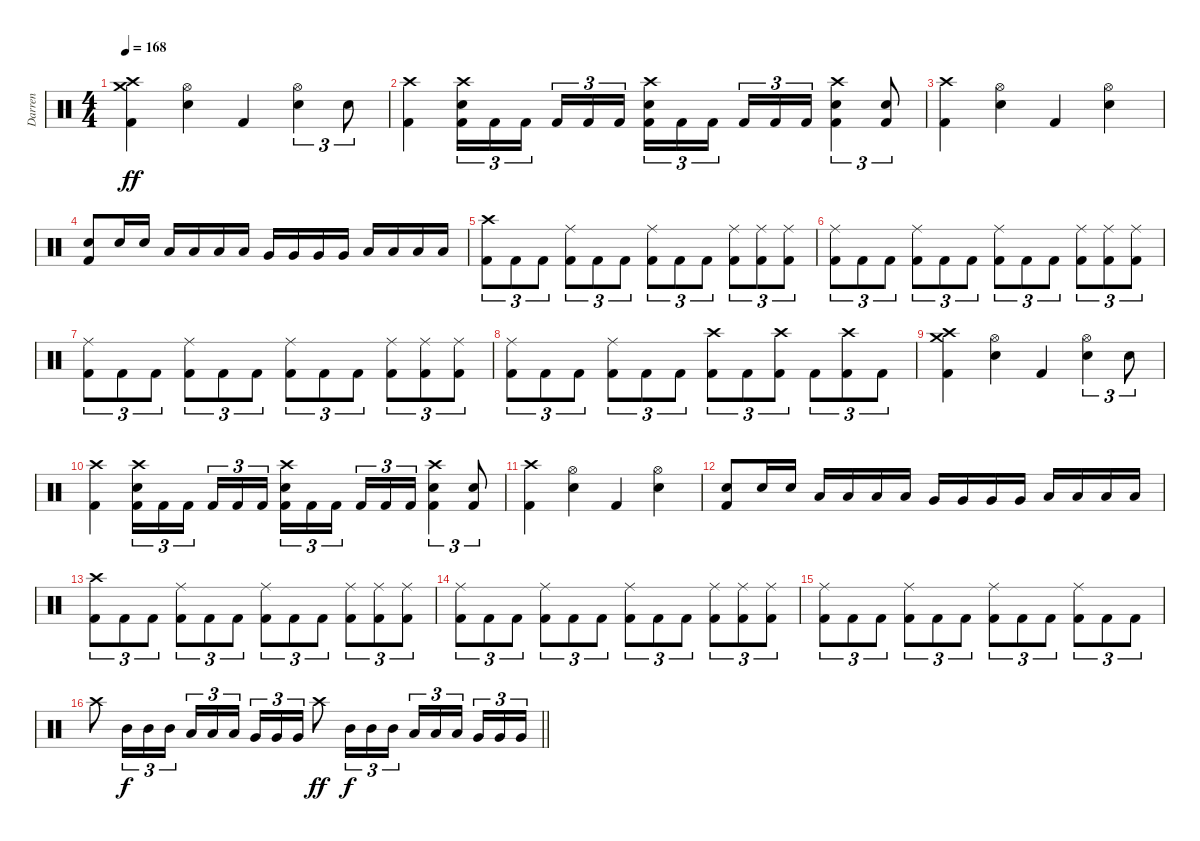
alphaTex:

\track ("Darren" "Darren") {instrument percussion}
\staff {score}
\articulation defaults
\ts (4 4)
\tempo 168
\clef neutral
\ks c
("Crash medium (hit)" "Crash high (hit)" "Kick (hit) 2").4{dy ff} ("Hi-Hat (open)" "Electric Snare (hit)").4 "Kick (hit) 2".4 ("Hi-Hat (open)" "Electric Snare (hit)").4{tu (3 2)} "Electric Snare (hit)".8{tu (3 2)} |
("Crash high (hit)" "Kick (hit) 2").4 ("Crash high (hit)" "Electric Snare (hit)" "Kick (hit) 2").16{tu (3 2)} "Kick (hit) 2".16{tu (3 2)} "Kick (hit) 2".16{tu (3 2) beam splitsecondary} "Kick (hit) 2".16{tu (3 2)} "Kick (hit) 2".16{tu (3 2)} "Kick (hit) 2".16{tu (3 2)} ("Crash high (hit)" "Electric Snare (hit)" "Kick (hit) 2").16{tu (3 2)} "Kick (hit) 2".16{tu (3 2)} "Kick (hit) 2".16{tu (3 2) beam splitsecondary} "Kick (hit) 2".16{tu (3 2)} "Kick (hit) 2".16{tu (3 2)} "Kick (hit) 2".16{tu (3 2)} ("Crash high (hit)" "Electric Snare (hit)" "Kick (hit) 2").4{tu (3 2)} ("Electric Snare (hit)" "Kick (hit) 2").8{tu (3 2)} |
("Crash high (hit)" "Kick (hit) 2").4 ("Hi-Hat (open)" "Electric Snare (hit)").4 "Kick (hit) 2".4 ("Hi-Hat (open)" "Electric Snare (hit)").4 |
("Electric Snare (hit)" "Kick (hit) 2").8 "Electric Snare (hit)".16 "Electric Snare (hit)".16 "Low Tom (hit)".16 "Low Tom (hit)".16 "Low Tom (hit)".16 "Low Tom (hit)".16 "Very Low Tom (hit)".16 "Very Low Tom (hit)".16 "Very Low Tom (hit)".16 "Very Low Tom (hit)".16 "Low Floor Tom (hit)".16 "Low Floor Tom (hit)".16 "Low Floor Tom (hit)".16 "Low Floor Tom (hit)".16 |
("Crash high (hit)" "Kick (hit) 2").8{tu (3 2)} "Kick (hit) 2".8{tu (3 2)} "Kick (hit) 2".8{tu (3 2)} ("Ride (middle)" "Kick (hit) 2").8{tu (3 2)} "Kick (hit) 2".8{tu (3 2)} "Kick (hit) 2".8{tu (3 2)} ("Ride (middle)" "Kick (hit) 2").8{tu (3 2)} "Kick (hit) 2".8{tu (3 2)} "Kick (hit) 2".8{tu (3 2)} ("Ride (middle)" "Kick (hit) 2").8{tu (3 2)} ("Ride (middle)" "Kick (hit) 2").8{tu (3 2)} ("Ride (middle)" "Kick (hit) 2").8{tu (3 2)} |
("Ride (middle)" "Kick (hit) 2").8{tu (3 2)} "Kick (hit) 2".8{tu (3 2)} "Kick (hit) 2".8{tu (3 2)} ("Ride (middle)" "Kick (hit) 2").8{tu (3 2)} "Kick (hit) 2".8{tu (3 2)} "Kick (hit) 2".8{tu (3 2)} ("Ride (middle)" "Kick (hit) 2").8{tu (3 2)} "Kick (hit) 2".8{tu (3 2)} "Kick (hit) 2".8{tu (3 2)} ("Ride (middle)" "Kick (hit) 2").8{tu (3 2)} ("Ride (middle)" "Kick (hit) 2").8{tu (3 2)} ("Ride (middle)" "Kick (hit) 2").8{tu (3 2)} |
("Ride (middle)" "Kick (hit) 2").8{tu (3 2)} "Kick (hit) 2".8{tu (3 2)} "Kick (hit) 2".8{tu (3 2)} ("Ride (middle)" "Kick (hit) 2").8{tu (3 2)} "Kick (hit) 2".8{tu (3 2)} "Kick (hit) 2".8{tu (3 2)} ("Ride (middle)" "Kick (hit) 2").8{tu (3 2)} "Kick (hit) 2".8{tu (3 2)} "Kick (hit) 2".8{tu (3 2)} ("Ride (middle)" "Kick (hit) 2").8{tu (3 2)} ("Ride (middle)" "Kick (hit) 2").8{tu (3 2)} ("Ride (middle)" "Kick (hit) 2").8{tu (3 2)} |
("Ride (middle)" "Kick (hit) 2").8{tu (3 2)} "Kick (hit) 2".8{tu (3 2)} "Kick (hit) 2".8{tu (3 2)} ("Ride (middle)" "Kick (hit) 2").8{tu (3 2)} "Kick (hit) 2".8{tu (3 2)} "Kick (hit) 2".8{tu (3 2)} ("Crash high (hit)" "Kick (hit) 2").8{tu (3 2)} "Kick (hit) 2".8{tu (3 2)} ("Crash high (hit)" "Kick (hit) 2").8{tu (3 2)} "Kick (hit) 2".8{tu (3 2)} ("Crash high (hit)" "Kick (hit) 2").8{tu (3 2)} "Kick (hit) 2".8{tu (3 2)} |
("Crash medium (hit)" "Crash high (hit)" "Kick (hit) 2").4 ("Hi-Hat (open)" "Electric Snare (hit)").4 "Kick (hit) 2".4 ("Hi-Hat (open)" "Electric Snare (hit)").4{tu (3 2)} "Electric Snare (hit)".8{tu (3 2)} |
("Crash high (hit)" "Kick (hit) 2").4 ("Crash high (hit)" "Electric Snare (hit)" "Kick (hit) 2").16{tu (3 2)} "Kick (hit) 2".16{tu (3 2)} "Kick (hit) 2".16{tu (3 2) beam splitsecondary} "Kick (hit) 2".16{tu (3 2)} "Kick (hit) 2".16{tu (3 2)} "Kick (hit) 2".16{tu (3 2)} ("Crash high (hit)" "Electric Snare (hit)" "Kick (hit) 2").16{tu (3 2)} "Kick (hit) 2".16{tu (3 2)} "Kick (hit) 2".16{tu (3 2) beam splitsecondary} "Kick (hit) 2".16{tu (3 2)} "Kick (hit) 2".16{tu (3 2)} "Kick (hit) 2".16{tu (3 2)} ("Crash high (hit)" "Electric Snare (hit)" "Kick (hit) 2").4{tu (3 2)} ("Electric Snare (hit)" "Kick (hit) 2").8{tu (3 2)} |
("Crash high (hit)" "Kick (hit) 2").4 ("Hi-Hat (open)" "Electric Snare (hit)").4 "Kick (hit) 2".4 ("Hi-Hat (open)" "Electric Snare (hit)").4 |
("Electric Snare (hit)" "Kick (hit) 2").8 "Electric Snare (hit)".16 "Electric Snare (hit)".16 "Low Tom (hit)".16 "Low Tom (hit)".16 "Low Tom (hit)".16 "Low Tom (hit)".16 "Very Low Tom (hit)".16 "Very Low Tom (hit)".16 "Very Low Tom (hit)".16 "Very Low Tom (hit)".16 "Low Floor Tom (hit)".16 "Low Floor Tom (hit)".16 "Low Floor Tom (hit)".16 "Low Floor Tom (hit)".16 |
("Crash high (hit)" "Kick (hit) 2").8{tu (3 2)} "Kick (hit) 2".8{tu (3 2)} "Kick (hit) 2".8{tu (3 2)} ("Ride (middle)" "Kick (hit) 2").8{tu (3 2)} "Kick (hit) 2".8{tu (3 2)} "Kick (hit) 2".8{tu (3 2)} ("Ride (middle)" "Kick (hit) 2").8{tu (3 2)} "Kick (hit) 2".8{tu (3 2)} "Kick (hit) 2".8{tu (3 2)} ("Ride (middle)" "Kick (hit) 2").8{tu (3 2)} ("Ride (middle)" "Kick (hit) 2").8{tu (3 2)} ("Ride (middle)" "Kick (hit) 2").8{tu (3 2)} |
("Ride (middle)" "Kick (hit) 2").8{tu (3 2)} "Kick (hit) 2".8{tu (3 2)} "Kick (hit) 2".8{tu (3 2)} ("Ride (middle)" "Kick (hit) 2").8{tu (3 2)} "Kick (hit) 2".8{tu (3 2)} "Kick (hit) 2".8{tu (3 2)} ("Ride (middle)" "Kick (hit) 2").8{tu (3 2)} "Kick (hit) 2".8{tu (3 2)} "Kick (hit) 2".8{tu (3 2)} ("Ride (middle)" "Kick (hit) 2").8{tu (3 2)} ("Ride (middle)" "Kick (hit) 2").8{tu (3 2)} ("Ride (middle)" "Kick (hit) 2").8{tu (3 2)} |
("Ride (middle)" "Kick (hit) 2").8{tu (3 2)} "Kick (hit) 2".8{tu (3 2)} "Kick (hit) 2".8{tu (3 2)} ("Ride (middle)" "Kick (hit) 2").8{tu (3 2)} "Kick (hit) 2".8{tu (3 2)} "Kick (hit) 2".8{tu (3 2)} ("Ride (middle)" "Kick (hit) 2").8{tu (3 2)} "Kick (hit) 2".8{tu (3 2)} "Kick (hit) 2".8{tu (3 2)} ("Ride (middle)" "Kick (hit) 2").8{tu (3 2)} "Kick (hit) 2".8{tu (3 2)} "Kick (hit) 2".8{tu (3 2)} |
\barLineRight lightlight "Crash high (hit)".8 "Mid Tom (hit)".16{tu (3 2) dy f} "Mid Tom (hit)".16{tu (3 2)} "Mid Tom (hit)".16{tu (3 2)} "Low Tom (hit)".16{tu (3 2)} "Low Tom (hit)".16{tu (3 2)} "Low Tom (hit)".16{tu (3 2) beam splitsecondary} "Very Low Tom (hit)".16{tu (3 2)} "Very Low Tom (hit)".16{tu (3 2)} "Very Low Tom (hit)".16{tu (3 2)} "Crash high (hit)".8{dy ff} "Mid Tom (hit)".16{tu (3 2) dy f} "Mid Tom (hit)".16{tu (3 2)} "Mid Tom (hit)".16{tu (3 2)} "Low Tom (hit)".16{tu (3 2)} "Low Tom (hit)".16{tu (3 2)} "Low Tom (hit)".16{tu (3 2) beam splitsecondary} "Very Low Tom (hit)".16{tu (3 2)} "Very Low Tom (hit)".16{tu (3 2)} "Very Low Tom (hit)".16{tu (3 2)}
